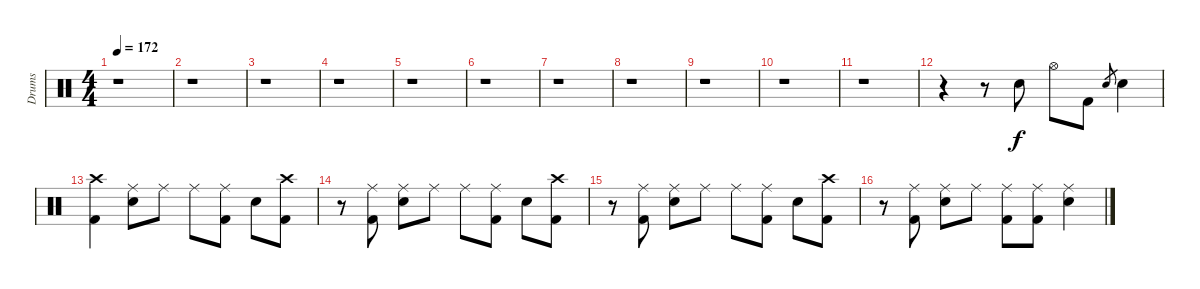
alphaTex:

\track ("Drums" "Drums") {instrument percussion}
\staff {score}
\articulation defaults
\ts (4 4)
\tempo 172
\clef neutral
\ks c
r.1{dy f} |
r.1 |
r.1 |
r.1 |
r.1 |
r.1 |
r.1 |
r.1 |
r.1 |
r.1 |
r.1 |
r.4 r.8 "Electric Snare (hit)".8 "Hi-Hat (open)".8 "Kick (hit) 2".8 "Electric Snare (hit)".8{gr} "Electric Snare (hit)".4 |
("Crash high (hit)" "Kick (hit) 2").4 ("Ride (middle)" "Electric Snare (hit)").8 "Ride (middle)".8 "Ride (middle)".8 ("Ride (middle)" "Kick (hit) 2").8 "Electric Snare (hit)".8 ("Crash high (hit)" "Kick (hit) 2").8 |
r.8 ("Ride (middle)" "Kick (hit) 2").8 ("Ride (middle)" "Electric Snare (hit)").8 "Ride (middle)".8 "Ride (middle)".8 ("Ride (middle)" "Kick (hit) 2").8 "Electric Snare (hit)".8 ("Crash high (hit)" "Kick (hit) 2").8 |
r.8 ("Ride (middle)" "Kick (hit) 2").8 ("Ride (middle)" "Electric Snare (hit)").8 "Ride (middle)".8 "Ride (middle)".8 ("Ride (middle)" "Kick (hit) 2").8 "Electric Snare (hit)".8 ("Crash high (hit)" "Kick (hit) 2").8 |
r.8 ("Ride (middle)" "Kick (hit) 2").8 ("Ride (middle)" "Electric Snare (hit)").8 "Ride (middle)".8 ("Ride (middle)" "Kick (hit) 2").8 ("Ride (middle)" "Kick (hit) 2").8 ("Ride (middle)" "Electric Snare (hit)").4
